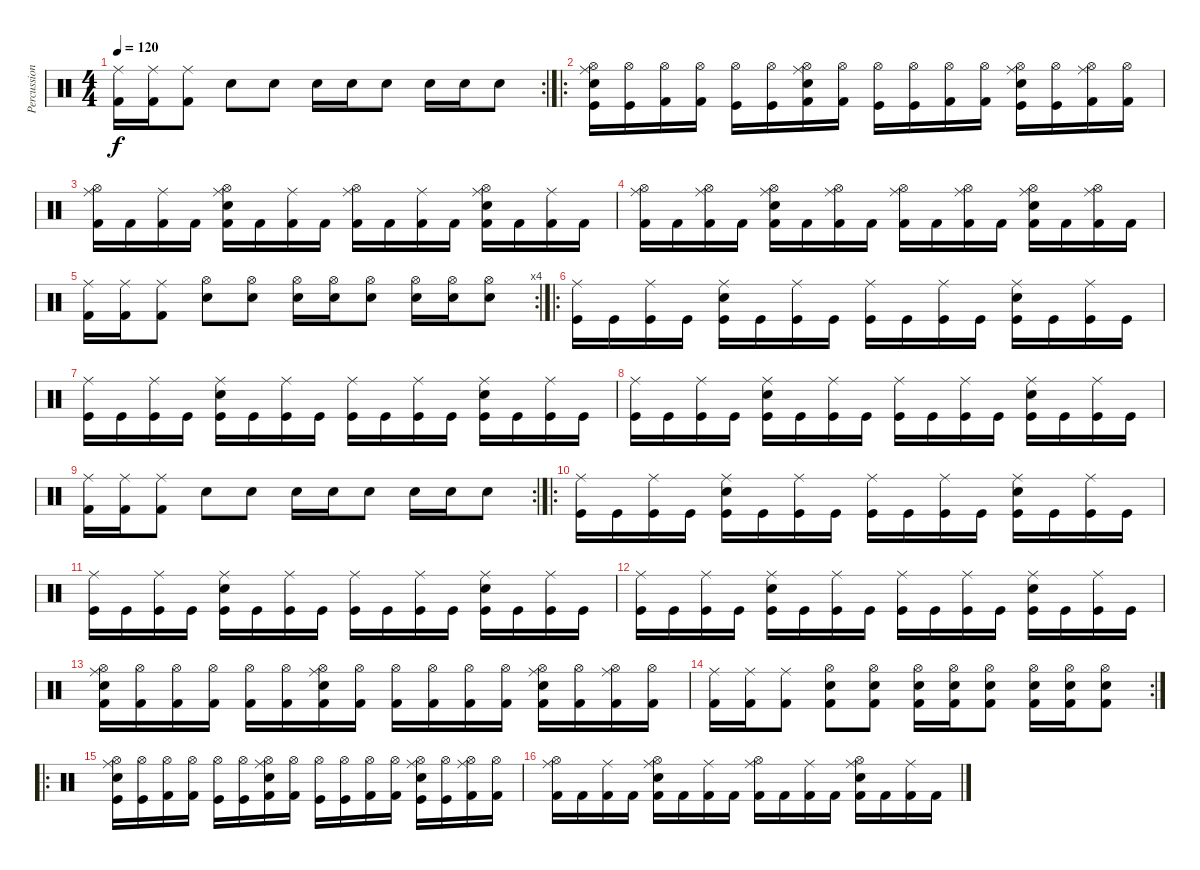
\track ("Percussions" "Percussion") {instrument percussion}
\staff {score}
\articulation defaults
\rc 2
\ts (4 4)
\tempo 120
\clef neutral
\ks c
("Kick (hit) 2" "Ride (middle)").16{dy f} ("Kick (hit) 2" "Ride (middle)").16 ("Kick (hit) 2" "Ride (middle)").8 "Snare (hit) 2".8 "Snare (hit) 2".8 "Snare (hit) 2".16 "Snare (hit) 2".16 "Snare (hit) 2".8 "Snare (hit) 2".16 "Snare (hit) 2".16 "Snare (hit) 2".8 |
\ro
("Kick (hit)" "Ride (middle)" "Snare (hit) 2" "Hi-Hat (open)").16 ("Kick (hit)" "Hi-Hat (open)").16 ("Kick (hit) 2" "Hi-Hat (open)").16 ("Kick (hit) 2" "Hi-Hat (open)").16 ("Kick (hit)" "Hi-Hat (open)").16 ("Kick (hit)" "Hi-Hat (open)").16 ("Kick (hit) 2" "Ride (middle)" "Snare (hit) 2" "Hi-Hat (open)").16 ("Kick (hit) 2" "Hi-Hat (open)").16 ("Kick (hit)" "Hi-Hat (open)").16 ("Kick (hit)" "Hi-Hat (open)").16 ("Kick (hit) 2" "Hi-Hat (open)").16 ("Kick (hit) 2" "Hi-Hat (open)").16 ("Kick (hit)" "Snare (hit) 2" "Ride (middle)" "Hi-Hat (open)").16 ("Kick (hit)" "Hi-Hat (open)").16 ("Kick (hit) 2" "Ride (middle)" "Hi-Hat (open)").16 ("Kick (hit) 2" "Hi-Hat (open)").16 |
("Kick (hit) 2" "Ride (middle)" "Hi-Hat (open)").16 "Kick (hit) 2".16 ("Kick (hit) 2" "Ride (middle)").16 "Kick (hit) 2".16 ("Kick (hit) 2" "Snare (hit) 2" "Ride (middle)" "Hi-Hat (open)").16 "Kick (hit) 2".16 ("Kick (hit) 2" "Ride (middle)").16 "Kick (hit) 2".16 ("Kick (hit) 2" "Ride (middle)" "Hi-Hat (open)").16 "Kick (hit) 2".16 ("Kick (hit) 2" "Ride (middle)").16 "Kick (hit) 2".16 ("Kick (hit) 2" "Snare (hit) 2" "Ride (middle)" "Hi-Hat (open)").16 "Kick (hit) 2".16 ("Kick (hit) 2" "Ride (middle)").16 "Kick (hit) 2".16 |
("Kick (hit) 2" "Ride (middle)" "Hi-Hat (open)").16 "Kick (hit) 2".16 ("Kick (hit) 2" "Ride (middle)" "Hi-Hat (open)").16 "Kick (hit) 2".16 ("Kick (hit) 2" "Snare (hit) 2" "Ride (middle)" "Hi-Hat (open)").16 "Kick (hit) 2".16 ("Kick (hit) 2" "Ride (middle)" "Hi-Hat (open)").16 "Kick (hit) 2".16 ("Kick (hit) 2" "Ride (middle)" "Hi-Hat (open)").16 "Kick (hit) 2".16 ("Kick (hit) 2" "Ride (middle)" "Hi-Hat (open)").16 "Kick (hit) 2".16 ("Kick (hit) 2" "Snare (hit) 2" "Ride (middle)" "Hi-Hat (open)").16 "Kick (hit) 2".16 ("Kick (hit) 2" "Ride (middle)" "Hi-Hat (open)").16 "Kick (hit) 2".16 |
\rc 4
("Kick (hit) 2" "Ride (middle)").16 ("Kick (hit) 2" "Ride (middle)").16 ("Kick (hit) 2" "Ride (middle)").8 ("Snare (hit) 2" "Hi-Hat (open)").8 ("Snare (hit) 2" "Hi-Hat (open)").8 ("Snare (hit) 2" "Hi-Hat (open)").16 ("Snare (hit) 2" "Hi-Hat (open)").16 ("Snare (hit) 2" "Hi-Hat (open)").8 ("Snare (hit) 2" "Hi-Hat (open)").16 ("Snare (hit) 2" "Hi-Hat (open)").16 ("Snare (hit) 2" "Hi-Hat (open)").8 |
\ro
("Kick (hit)" "Ride (middle)").16 "Kick (hit)".16 ("Kick (hit)" "Ride (middle)").16 "Kick (hit)".16 ("Kick (hit)" "Snare (hit) 2" "Ride (middle)").16 "Kick (hit)".16 ("Kick (hit)" "Ride (middle)").16 "Kick (hit)".16 ("Kick (hit)" "Ride (middle)").16 "Kick (hit)".16 ("Kick (hit)" "Ride (middle)").16 "Kick (hit)".16 ("Kick (hit)" "Snare (hit) 2" "Ride (middle)").16 "Kick (hit)".16 ("Kick (hit)" "Ride (middle)").16 "Kick (hit)".16 |
("Kick (hit)" "Ride (middle)").16 "Kick (hit)".16 ("Kick (hit)" "Ride (middle)").16 "Kick (hit)".16 ("Kick (hit)" "Snare (hit) 2" "Ride (middle)").16 "Kick (hit)".16 ("Kick (hit)" "Ride (middle)").16 "Kick (hit)".16 ("Kick (hit)" "Ride (middle)").16 "Kick (hit)".16 ("Kick (hit)" "Ride (middle)").16 "Kick (hit)".16 ("Kick (hit)" "Snare (hit) 2" "Ride (middle)").16 "Kick (hit)".16 ("Kick (hit)" "Ride (middle)").16 "Kick (hit)".16 |
("Kick (hit)" "Ride (middle)").16 "Kick (hit)".16 ("Kick (hit)" "Ride (middle)").16 "Kick (hit)".16 ("Kick (hit)" "Snare (hit) 2" "Ride (middle)").16 "Kick (hit)".16 ("Kick (hit)" "Ride (middle)").16 "Kick (hit)".16 ("Kick (hit)" "Ride (middle)").16 "Kick (hit)".16 ("Kick (hit)" "Ride (middle)").16 "Kick (hit)".16 ("Kick (hit)" "Snare (hit) 2" "Ride (middle)").16 "Kick (hit)".16 ("Kick (hit)" "Ride (middle)").16 "Kick (hit)".16 |
\rc 2
("Kick (hit) 2" "Ride (middle)").16 ("Kick (hit) 2" "Ride (middle)").16 ("Kick (hit) 2" "Ride (middle)").8 "Snare (hit) 2".8 "Snare (hit) 2".8 "Snare (hit) 2".16 "Snare (hit) 2".16 "Snare (hit) 2".8 "Snare (hit) 2".16 "Snare (hit) 2".16 "Snare (hit) 2".8 |
\ro
("Kick (hit)" "Ride (middle)").16 "Kick (hit)".16 ("Kick (hit)" "Ride (middle)").16 "Kick (hit)".16 ("Kick (hit)" "Snare (hit) 2" "Ride (middle)").16 "Kick (hit)".16 ("Kick (hit)" "Ride (middle)").16 "Kick (hit)".16 ("Kick (hit)" "Ride (middle)").16 "Kick (hit)".16 ("Kick (hit)" "Ride (middle)").16 "Kick (hit)".16 ("Kick (hit)" "Snare (hit) 2" "Ride (middle)").16 "Kick (hit)".16 ("Kick (hit)" "Ride (middle)").16 "Kick (hit)".16 |
("Kick (hit)" "Ride (middle)").16 "Kick (hit)".16 ("Kick (hit)" "Ride (middle)").16 "Kick (hit)".16 ("Kick (hit)" "Snare (hit) 2" "Ride (middle)").16 "Kick (hit)".16 ("Kick (hit)" "Ride (middle)").16 "Kick (hit)".16 ("Kick (hit)" "Ride (middle)").16 "Kick (hit)".16 ("Kick (hit)" "Ride (middle)").16 "Kick (hit)".16 ("Kick (hit)" "Snare (hit) 2" "Ride (middle)").16 "Kick (hit)".16 ("Kick (hit)" "Ride (middle)").16 "Kick (hit)".16 |
("Kick (hit)" "Ride (middle)").16 "Kick (hit)".16 ("Kick (hit)" "Ride (middle)").16 "Kick (hit)".16 ("Kick (hit)" "Snare (hit) 2" "Ride (middle)").16 "Kick (hit)".16 ("Kick (hit)" "Ride (middle)").16 "Kick (hit)".16 ("Kick (hit)" "Ride (middle)").16 "Kick (hit)".16 ("Kick (hit)" "Ride (middle)").16 "Kick (hit)".16 ("Kick (hit)" "Snare (hit) 2" "Ride (middle)").16 "Kick (hit)".16 ("Kick (hit)" "Ride (middle)").16 "Kick (hit)".16 |
("Kick (hit) 2" "Ride (middle)" "Snare (hit) 2" "Hi-Hat (open)").16 ("Kick (hit) 2" "Hi-Hat (open)").16 ("Kick (hit) 2" "Hi-Hat (open)").16 ("Kick (hit) 2" "Hi-Hat (open)").16 ("Kick (hit) 2" "Hi-Hat (open)").16 ("Kick (hit) 2" "Hi-Hat (open)").16 ("Kick (hit) 2" "Ride (middle)" "Snare (hit) 2" "Hi-Hat (open)").16 ("Kick (hit) 2" "Hi-Hat (open)").16 ("Kick (hit) 2" "Hi-Hat (open)").16 ("Kick (hit) 2" "Hi-Hat (open)").16 ("Kick (hit) 2" "Hi-Hat (open)").16 ("Kick (hit) 2" "Hi-Hat (open)").16 ("Kick (hit) 2" "Snare (hit) 2" "Ride (middle)" "Hi-Hat (open)").16 ("Kick (hit) 2" "Hi-Hat (open)").16 ("Kick (hit) 2" "Ride (middle)" "Hi-Hat (open)").16 ("Kick (hit) 2" "Hi-Hat (open)").16 |
\rc 2
("Kick (hit) 2" "Ride (middle)").16 ("Kick (hit) 2" "Ride (middle)").16 ("Kick (hit) 2" "Ride (middle)").8 ("Kick (hit) 2" "Snare (hit) 2" "Hi-Hat (open)").8 ("Kick (hit) 2" "Snare (hit) 2" "Hi-Hat (open)").8 ("Kick (hit) 2" "Snare (hit) 2" "Hi-Hat (open)").16 ("Kick (hit) 2" "Snare (hit) 2" "Hi-Hat (open)").16 ("Kick (hit) 2" "Snare (hit) 2" "Hi-Hat (open)").8 ("Kick (hit) 2" "Snare (hit) 2" "Hi-Hat (open)").16 ("Kick (hit) 2" "Snare (hit) 2" "Hi-Hat (open)").16 ("Kick (hit) 2" "Snare (hit) 2" "Hi-Hat (open)").8 |
\ro
("Kick (hit)" "Ride (middle)" "Snare (hit) 2" "Hi-Hat (open)").16 ("Kick (hit)" "Hi-Hat (open)").16 ("Kick (hit) 2" "Hi-Hat (open)").16 ("Kick (hit) 2" "Hi-Hat (open)").16 ("Kick (hit)" "Hi-Hat (open)").16 ("Kick (hit)" "Hi-Hat (open)").16 ("Kick (hit) 2" "Ride (middle)" "Snare (hit) 2" "Hi-Hat (open)").16 ("Kick (hit) 2" "Hi-Hat (open)").16 ("Kick (hit)" "Hi-Hat (open)").16 ("Kick (hit)" "Hi-Hat (open)").16 ("Kick (hit) 2" "Hi-Hat (open)").16 ("Kick (hit) 2" "Hi-Hat (open)").16 ("Kick (hit)" "Snare (hit) 2" "Ride (middle)" "Hi-Hat (open)").16 ("Kick (hit)" "Hi-Hat (open)").16 ("Kick (hit) 2" "Ride (middle)" "Hi-Hat (open)").16 ("Kick (hit) 2" "Hi-Hat (open)").16 |
("Kick (hit) 2" "Ride (middle)" "Hi-Hat (open)").16 "Kick (hit) 2".16 ("Kick (hit) 2" "Ride (middle)").16 "Kick (hit) 2".16 ("Kick (hit) 2" "Snare (hit) 2" "Ride (middle)" "Hi-Hat (open)").16 "Kick (hit) 2".16 ("Kick (hit) 2" "Ride (middle)").16 "Kick (hit) 2".16 ("Kick (hit) 2" "Ride (middle)" "Hi-Hat (open)").16 "Kick (hit) 2".16 ("Kick (hit) 2" "Ride (middle)").16 "Kick (hit) 2".16 ("Kick (hit) 2" "Snare (hit) 2" "Ride (middle)" "Hi-Hat (open)").16 "Kick (hit) 2".16 ("Kick (hit) 2" "Ride (middle)").16 "Kick (hit) 2".16
